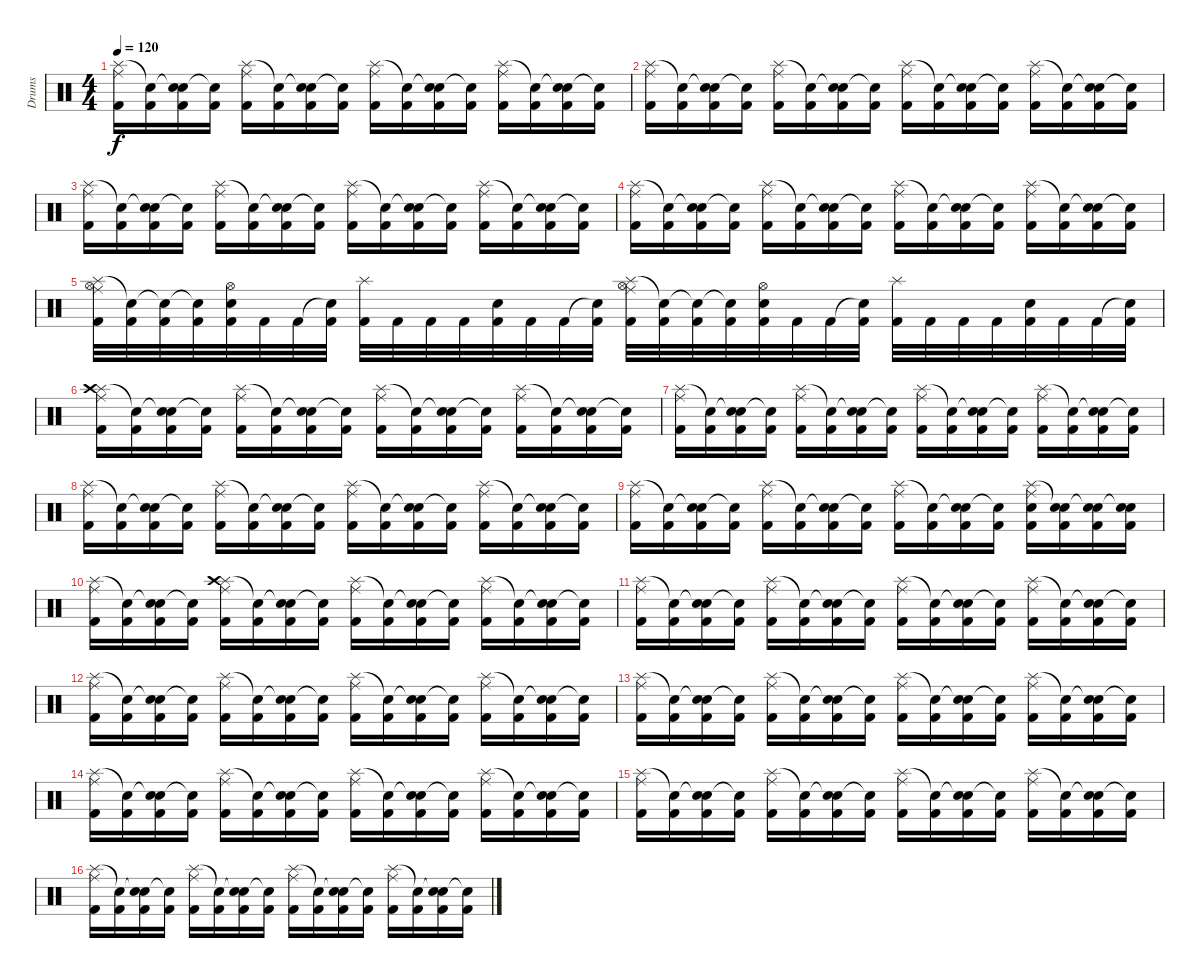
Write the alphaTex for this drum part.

\track ("Drums" "Drums") {instrument percussion}
\staff {score}
\articulation defaults
\ts (4 4)
\tempo 120
\clef neutral
\ks c
("Splash (hit)" "Ride (middle)" "Kick (hit) 2").16{dy f} ("Snare (hit)"{t} "Kick (hit) 2").16 ("Snare (hit)"{t} "Electric Snare (hit)" "Kick (hit) 2").16 ("Snare (hit)"{t} "Kick (hit) 2").16 ("Splash (hit)" "Ride (middle)" "Kick (hit) 2").16 ("Snare (hit)"{t} "Kick (hit) 2").16 ("Snare (hit)"{t} "Electric Snare (hit)" "Kick (hit) 2").16 ("Snare (hit)"{t} "Kick (hit) 2").16 ("Splash (hit)" "Ride (middle)" "Kick (hit) 2").16 ("Snare (hit)"{t} "Kick (hit) 2").16 ("Snare (hit)"{t} "Electric Snare (hit)" "Kick (hit) 2").16 ("Snare (hit)"{t} "Kick (hit) 2").16 ("Splash (hit)" "Ride (middle)" "Kick (hit) 2").16 ("Snare (hit)"{t} "Kick (hit) 2").16 ("Snare (hit)"{t} "Electric Snare (hit)" "Kick (hit) 2").16 ("Snare (hit)"{t} "Kick (hit) 2").16 |
("Splash (hit)" "Ride (middle)" "Kick (hit) 2").16 ("Snare (hit)"{t} "Kick (hit) 2").16 ("Snare (hit)"{t} "Electric Snare (hit)" "Kick (hit) 2").16 ("Snare (hit)"{t} "Kick (hit) 2").16 ("Splash (hit)" "Ride (middle)" "Kick (hit) 2").16 ("Snare (hit)"{t} "Kick (hit) 2").16 ("Snare (hit)"{t} "Electric Snare (hit)" "Kick (hit) 2").16 ("Snare (hit)"{t} "Kick (hit) 2").16 ("Splash (hit)" "Ride (middle)" "Kick (hit) 2").16 ("Snare (hit)"{t} "Kick (hit) 2").16 ("Snare (hit)"{t} "Electric Snare (hit)" "Kick (hit) 2").16 ("Snare (hit)"{t} "Kick (hit) 2").16 ("Splash (hit)" "Ride (middle)" "Kick (hit) 2").16 ("Snare (hit)"{t} "Kick (hit) 2").16 ("Snare (hit)"{t} "Electric Snare (hit)" "Kick (hit) 2").16 ("Snare (hit)"{t} "Kick (hit) 2").16 |
("Splash (hit)" "Ride (middle)" "Kick (hit) 2").16 ("Snare (hit)"{t} "Kick (hit) 2").16 ("Snare (hit)"{t} "Electric Snare (hit)" "Kick (hit) 2").16 ("Snare (hit)"{t} "Kick (hit) 2").16 ("Splash (hit)" "Ride (middle)" "Kick (hit) 2").16 ("Snare (hit)"{t} "Kick (hit) 2").16 ("Snare (hit)"{t} "Electric Snare (hit)" "Kick (hit) 2").16 ("Snare (hit)"{t} "Kick (hit) 2").16 ("Splash (hit)" "Ride (middle)" "Kick (hit) 2").16 ("Snare (hit)"{t} "Kick (hit) 2").16 ("Snare (hit)"{t} "Electric Snare (hit)" "Kick (hit) 2").16 ("Snare (hit)"{t} "Kick (hit) 2").16 ("Splash (hit)" "Ride (middle)" "Kick (hit) 2").16 ("Snare (hit)"{t} "Kick (hit) 2").16 ("Snare (hit)"{t} "Electric Snare (hit)" "Kick (hit) 2").16 ("Snare (hit)"{t} "Kick (hit) 2").16 |
("Splash (hit)" "Ride (middle)" "Kick (hit) 2").16 ("Snare (hit)"{t} "Kick (hit) 2").16 ("Snare (hit)"{t} "Electric Snare (hit)" "Kick (hit) 2").16 ("Snare (hit)"{t} "Kick (hit) 2").16 ("Splash (hit)" "Ride (middle)" "Kick (hit) 2").16 ("Snare (hit)"{t} "Kick (hit) 2").16 ("Snare (hit)"{t} "Electric Snare (hit)" "Kick (hit) 2").16 ("Snare (hit)"{t} "Kick (hit) 2").16 ("Splash (hit)" "Ride (middle)" "Kick (hit) 2").16 ("Snare (hit)"{t} "Kick (hit) 2").16 ("Snare (hit)"{t} "Electric Snare (hit)" "Kick (hit) 2").16 ("Snare (hit)"{t} "Kick (hit) 2").16 ("Splash (hit)" "Ride (middle)" "Kick (hit) 2").16 ("Snare (hit)"{t} "Kick (hit) 2").16 ("Snare (hit)"{t} "Electric Snare (hit)" "Kick (hit) 2").16 ("Snare (hit)"{t} "Kick (hit) 2").16 |
("Splash (hit)" "Hi-Hat (open)" "Kick (hit) 2" "Ride (middle)").32 ("Snare (hit)"{t} "Kick (hit) 2").32 ("Snare (hit)"{t} "Kick (hit) 2").32 ("Snare (hit)"{t} "Kick (hit) 2").32 ("Hi-Hat (open)" "Electric Snare (hit)" "Kick (hit) 2").32 "Kick (hit) 2".32 "Kick (hit) 2".32 ("Snare (hit)"{t} "Kick (hit) 2").32 ("Splash (hit)" "Kick (hit) 2").32 "Kick (hit) 2".32 "Kick (hit) 2".32 "Kick (hit) 2".32 ("Electric Snare (hit)" "Kick (hit) 2").32 "Kick (hit) 2".32 "Kick (hit) 2".32 ("Snare (hit)"{t} "Kick (hit) 2").32 ("Splash (hit)" "Hi-Hat (open)" "Kick (hit) 2" "Ride (middle)").32 ("Snare (hit)"{t} "Kick (hit) 2").32 ("Snare (hit)"{t} "Kick (hit) 2").32 ("Snare (hit)"{t} "Kick (hit) 2").32 ("Hi-Hat (open)" "Electric Snare (hit)" "Kick (hit) 2").32 "Kick (hit) 2".32 "Kick (hit) 2".32 ("Snare (hit)"{t} "Kick (hit) 2").32 ("Splash (hit)" "Kick (hit) 2").32 "Kick (hit) 2".32 "Kick (hit) 2".32 "Kick (hit) 2".32 ("Electric Snare (hit)" "Kick (hit) 2").32 "Kick (hit) 2".32 "Kick (hit) 2".32 ("Snare (hit)"{t} "Kick (hit) 2").32 |
("Splash (hit)" "Crash high (hit)" "Kick (hit) 2" "Ride (middle)").16 ("Snare (hit)"{t} "Kick (hit) 2").16 ("Snare (hit)"{t} "Electric Snare (hit)" "Kick (hit) 2").16 ("Snare (hit)"{t} "Kick (hit) 2").16 ("Splash (hit)" "Ride (middle)" "Kick (hit) 2").16 ("Snare (hit)"{t} "Kick (hit) 2").16 ("Snare (hit)"{t} "Electric Snare (hit)" "Kick (hit) 2").16 ("Snare (hit)"{t} "Kick (hit) 2").16 ("Splash (hit)" "Ride (middle)" "Kick (hit) 2").16 ("Snare (hit)"{t} "Kick (hit) 2").16 ("Snare (hit)"{t} "Electric Snare (hit)" "Kick (hit) 2").16 ("Snare (hit)"{t} "Kick (hit) 2").16 ("Splash (hit)" "Ride (middle)" "Kick (hit) 2").16 ("Snare (hit)"{t} "Kick (hit) 2").16 ("Snare (hit)"{t} "Electric Snare (hit)" "Kick (hit) 2").16 ("Snare (hit)"{t} "Kick (hit) 2").16 |
("Splash (hit)" "Ride (middle)" "Kick (hit) 2").16 ("Snare (hit)"{t} "Kick (hit) 2").16 ("Snare (hit)"{t} "Electric Snare (hit)" "Kick (hit) 2").16 ("Snare (hit)"{t} "Kick (hit) 2").16 ("Splash (hit)" "Ride (middle)" "Kick (hit) 2").16 ("Snare (hit)"{t} "Kick (hit) 2").16 ("Snare (hit)"{t} "Electric Snare (hit)" "Kick (hit) 2").16 ("Snare (hit)"{t} "Kick (hit) 2").16 ("Splash (hit)" "Ride (middle)" "Kick (hit) 2").16 ("Snare (hit)"{t} "Kick (hit) 2").16 ("Snare (hit)"{t} "Electric Snare (hit)" "Kick (hit) 2").16 ("Snare (hit)"{t} "Kick (hit) 2").16 ("Splash (hit)" "Ride (middle)" "Kick (hit) 2").16 ("Snare (hit)"{t} "Kick (hit) 2").16 ("Snare (hit)"{t} "Electric Snare (hit)" "Kick (hit) 2").16 ("Snare (hit)"{t} "Kick (hit) 2").16 |
("Splash (hit)" "Ride (middle)" "Kick (hit) 2").16 ("Snare (hit)"{t} "Kick (hit) 2").16 ("Snare (hit)"{t} "Electric Snare (hit)" "Kick (hit) 2").16 ("Snare (hit)"{t} "Kick (hit) 2").16 ("Splash (hit)" "Ride (middle)" "Kick (hit) 2").16 ("Snare (hit)"{t} "Kick (hit) 2").16 ("Snare (hit)"{t} "Electric Snare (hit)" "Kick (hit) 2").16 ("Snare (hit)"{t} "Kick (hit) 2").16 ("Splash (hit)" "Ride (middle)" "Kick (hit) 2").16 ("Snare (hit)"{t} "Kick (hit) 2").16 ("Snare (hit)"{t} "Electric Snare (hit)" "Kick (hit) 2").16 ("Snare (hit)"{t} "Kick (hit) 2").16 ("Splash (hit)" "Ride (middle)" "Kick (hit) 2").16 ("Snare (hit)"{t} "Kick (hit) 2").16 ("Snare (hit)"{t} "Electric Snare (hit)" "Kick (hit) 2").16 ("Snare (hit)"{t} "Kick (hit) 2").16 |
("Splash (hit)" "Ride (middle)" "Kick (hit) 2").16 ("Snare (hit)"{t} "Kick (hit) 2").16 ("Snare (hit)"{t} "Electric Snare (hit)" "Kick (hit) 2").16 ("Snare (hit)"{t} "Kick (hit) 2").16 ("Splash (hit)" "Ride (middle)" "Kick (hit) 2").16 ("Snare (hit)"{t} "Kick (hit) 2").16 ("Snare (hit)"{t} "Electric Snare (hit)" "Kick (hit) 2").16 ("Snare (hit)"{t} "Kick (hit) 2").16 ("Splash (hit)" "Ride (middle)" "Kick (hit) 2").16 ("Snare (hit)"{t} "Kick (hit) 2").16 ("Snare (hit)"{t} "Electric Snare (hit)" "Kick (hit) 2").16 ("Snare (hit)"{t} "Kick (hit) 2").16 ("Splash (hit)" "Electric Snare (hit)" "Kick (hit) 2" "Ride (middle)").16 ("Snare (hit)"{t} "Electric Snare (hit)" "Kick (hit) 2").16 ("Snare (hit)"{t} "Electric Snare (hit)" "Kick (hit) 2").16 ("Snare (hit)"{t} "Electric Snare (hit)" "Kick (hit) 2").16 |
("Splash (hit)" "Ride (middle)" "Kick (hit) 2").16 ("Snare (hit)"{t} "Kick (hit) 2").16 ("Snare (hit)"{t} "Electric Snare (hit)" "Kick (hit) 2").16 ("Snare (hit)"{t} "Kick (hit) 2").16 ("Splash (hit)" "Ride (middle)" "Kick (hit) 2" "Crash high (hit)").16 ("Snare (hit)"{t} "Kick (hit) 2").16 ("Snare (hit)"{t} "Electric Snare (hit)" "Kick (hit) 2").16 ("Snare (hit)"{t} "Kick (hit) 2").16 ("Splash (hit)" "Ride (middle)" "Kick (hit) 2").16 ("Snare (hit)"{t} "Kick (hit) 2").16 ("Snare (hit)"{t} "Electric Snare (hit)" "Kick (hit) 2").16 ("Snare (hit)"{t} "Kick (hit) 2").16 ("Splash (hit)" "Ride (middle)" "Kick (hit) 2").16 ("Snare (hit)"{t} "Kick (hit) 2").16 ("Snare (hit)"{t} "Electric Snare (hit)" "Kick (hit) 2").16 ("Snare (hit)"{t} "Kick (hit) 2").16 |
("Splash (hit)" "Ride (middle)" "Kick (hit) 2").16 ("Snare (hit)"{t} "Kick (hit) 2").16 ("Snare (hit)"{t} "Electric Snare (hit)" "Kick (hit) 2").16 ("Snare (hit)"{t} "Kick (hit) 2").16 ("Splash (hit)" "Ride (middle)" "Kick (hit) 2").16 ("Snare (hit)"{t} "Kick (hit) 2").16 ("Snare (hit)"{t} "Electric Snare (hit)" "Kick (hit) 2").16 ("Snare (hit)"{t} "Kick (hit) 2").16 ("Splash (hit)" "Ride (middle)" "Kick (hit) 2").16 ("Snare (hit)"{t} "Kick (hit) 2").16 ("Snare (hit)"{t} "Electric Snare (hit)" "Kick (hit) 2").16 ("Snare (hit)"{t} "Kick (hit) 2").16 ("Splash (hit)" "Ride (middle)" "Kick (hit) 2").16 ("Snare (hit)"{t} "Kick (hit) 2").16 ("Snare (hit)"{t} "Electric Snare (hit)" "Kick (hit) 2").16 ("Snare (hit)"{t} "Kick (hit) 2").16 |
("Splash (hit)" "Ride (middle)" "Kick (hit) 2").16 ("Snare (hit)"{t} "Kick (hit) 2").16 ("Snare (hit)"{t} "Electric Snare (hit)" "Kick (hit) 2").16 ("Snare (hit)"{t} "Kick (hit) 2").16 ("Splash (hit)" "Ride (middle)" "Kick (hit) 2").16 ("Snare (hit)"{t} "Kick (hit) 2").16 ("Snare (hit)"{t} "Electric Snare (hit)" "Kick (hit) 2").16 ("Snare (hit)"{t} "Kick (hit) 2").16 ("Splash (hit)" "Ride (middle)" "Kick (hit) 2").16 ("Snare (hit)"{t} "Kick (hit) 2").16 ("Snare (hit)"{t} "Electric Snare (hit)" "Kick (hit) 2").16 ("Snare (hit)"{t} "Kick (hit) 2").16 ("Splash (hit)" "Ride (middle)" "Kick (hit) 2").16 ("Snare (hit)"{t} "Kick (hit) 2").16 ("Snare (hit)"{t} "Electric Snare (hit)" "Kick (hit) 2").16 ("Snare (hit)"{t} "Kick (hit) 2").16 |
("Splash (hit)" "Ride (middle)" "Kick (hit) 2").16 ("Snare (hit)"{t} "Kick (hit) 2").16 ("Snare (hit)"{t} "Electric Snare (hit)" "Kick (hit) 2").16 ("Snare (hit)"{t} "Kick (hit) 2").16 ("Splash (hit)" "Ride (middle)" "Kick (hit) 2").16 ("Snare (hit)"{t} "Kick (hit) 2").16 ("Snare (hit)"{t} "Electric Snare (hit)" "Kick (hit) 2").16 ("Snare (hit)"{t} "Kick (hit) 2").16 ("Splash (hit)" "Ride (middle)" "Kick (hit) 2").16 ("Snare (hit)"{t} "Kick (hit) 2").16 ("Snare (hit)"{t} "Electric Snare (hit)" "Kick (hit) 2").16 ("Snare (hit)"{t} "Kick (hit) 2").16 ("Splash (hit)" "Ride (middle)" "Kick (hit) 2").16 ("Snare (hit)"{t} "Kick (hit) 2").16 ("Snare (hit)"{t} "Electric Snare (hit)" "Kick (hit) 2").16 ("Snare (hit)"{t} "Kick (hit) 2").16 |
("Splash (hit)" "Ride (middle)" "Kick (hit) 2").16 ("Snare (hit)"{t} "Kick (hit) 2").16 ("Snare (hit)"{t} "Electric Snare (hit)" "Kick (hit) 2").16 ("Snare (hit)"{t} "Kick (hit) 2").16 ("Splash (hit)" "Ride (middle)" "Kick (hit) 2").16 ("Snare (hit)"{t} "Kick (hit) 2").16 ("Snare (hit)"{t} "Electric Snare (hit)" "Kick (hit) 2").16 ("Snare (hit)"{t} "Kick (hit) 2").16 ("Splash (hit)" "Ride (middle)" "Kick (hit) 2").16 ("Snare (hit)"{t} "Kick (hit) 2").16 ("Snare (hit)"{t} "Electric Snare (hit)" "Kick (hit) 2").16 ("Snare (hit)"{t} "Kick (hit) 2").16 ("Splash (hit)" "Ride (middle)" "Kick (hit) 2").16 ("Snare (hit)"{t} "Kick (hit) 2").16 ("Snare (hit)"{t} "Electric Snare (hit)" "Kick (hit) 2").16 ("Snare (hit)"{t} "Kick (hit) 2").16 |
("Splash (hit)" "Ride (middle)" "Kick (hit) 2").16 ("Snare (hit)"{t} "Kick (hit) 2").16 ("Snare (hit)"{t} "Electric Snare (hit)" "Kick (hit) 2").16 ("Snare (hit)"{t} "Kick (hit) 2").16 ("Splash (hit)" "Ride (middle)" "Kick (hit) 2").16 ("Snare (hit)"{t} "Kick (hit) 2").16 ("Snare (hit)"{t} "Electric Snare (hit)" "Kick (hit) 2").16 ("Snare (hit)"{t} "Kick (hit) 2").16 ("Splash (hit)" "Ride (middle)" "Kick (hit) 2").16 ("Snare (hit)"{t} "Kick (hit) 2").16 ("Snare (hit)"{t} "Electric Snare (hit)" "Kick (hit) 2").16 ("Snare (hit)"{t} "Kick (hit) 2").16 ("Splash (hit)" "Ride (middle)" "Kick (hit) 2").16 ("Snare (hit)"{t} "Kick (hit) 2").16 ("Snare (hit)"{t} "Electric Snare (hit)" "Kick (hit) 2").16 ("Snare (hit)"{t} "Kick (hit) 2").16 |
("Splash (hit)" "Ride (middle)" "Kick (hit) 2").16 ("Snare (hit)"{t} "Kick (hit) 2").16 ("Snare (hit)"{t} "Electric Snare (hit)" "Kick (hit) 2").16 ("Snare (hit)"{t} "Kick (hit) 2").16 ("Splash (hit)" "Ride (middle)" "Kick (hit) 2").16 ("Snare (hit)"{t} "Kick (hit) 2").16 ("Snare (hit)"{t} "Electric Snare (hit)" "Kick (hit) 2").16 ("Snare (hit)"{t} "Kick (hit) 2").16 ("Splash (hit)" "Ride (middle)" "Kick (hit) 2").16 ("Snare (hit)"{t} "Kick (hit) 2").16 ("Snare (hit)"{t} "Electric Snare (hit)" "Kick (hit) 2").16 ("Snare (hit)"{t} "Kick (hit) 2").16 ("Splash (hit)" "Ride (middle)" "Kick (hit) 2").16 ("Snare (hit)"{t} "Kick (hit) 2").16 ("Snare (hit)"{t} "Electric Snare (hit)" "Kick (hit) 2").16 ("Snare (hit)"{t} "Kick (hit) 2").16
